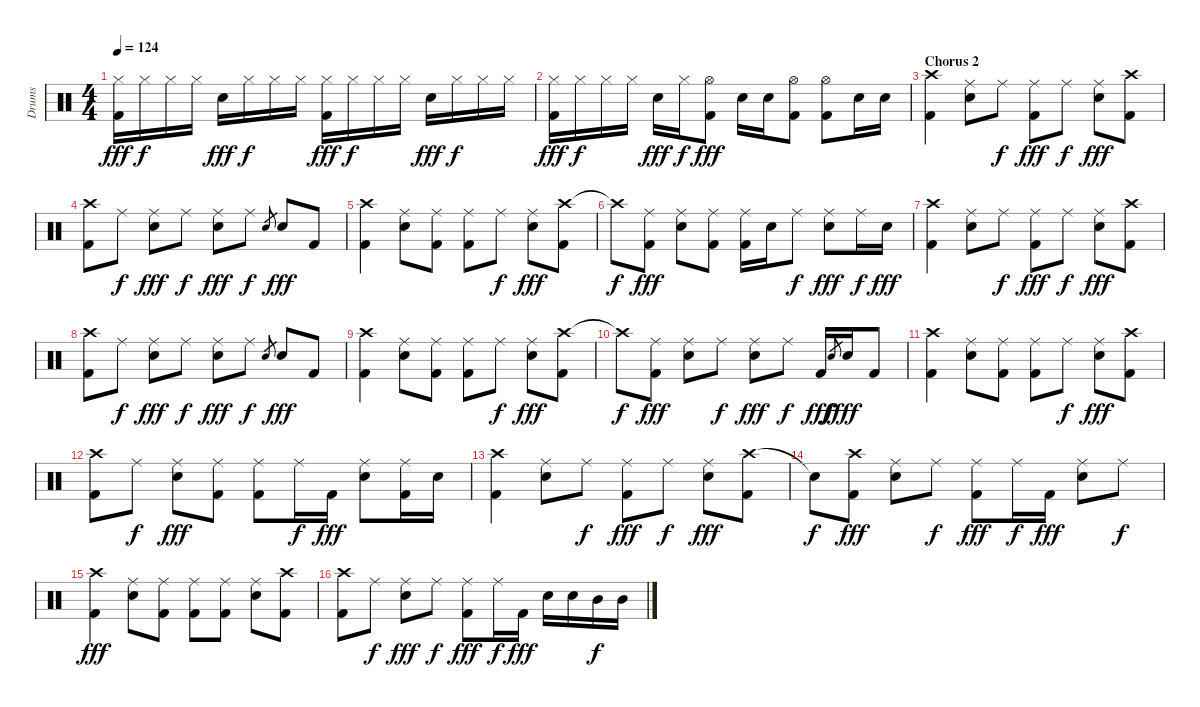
\track ("Drums" "Drums") {instrument percussion}
\staff {score}
\articulation defaults
\ts (4 4)
\tempo 124
\clef neutral
\ks c
("Hi-Hat (closed)" "Kick (hit) 2").16{dy fff} "Hi-Hat (closed)".16{dy f} "Hi-Hat (closed)".16 "Hi-Hat (closed)".16 "Electric Snare (hit)".16{dy fff} "Hi-Hat (closed)".16{dy f} "Hi-Hat (closed)".16 "Hi-Hat (closed)".16 ("Hi-Hat (closed)" "Kick (hit) 2").16{dy fff} "Hi-Hat (closed)".16{dy f} "Hi-Hat (closed)".16 "Hi-Hat (closed)".16 "Electric Snare (hit)".16{dy fff} "Hi-Hat (closed)".16{dy f} "Hi-Hat (closed)".16 "Hi-Hat (closed)".16 |
("Hi-Hat (closed)" "Kick (hit) 2").16{dy fff} "Hi-Hat (closed)".16{dy f} "Hi-Hat (closed)".16 "Hi-Hat (closed)".16 "Electric Snare (hit)".16{dy fff} "Hi-Hat (closed)".16{dy f} ("Hi-Hat (open)" "Kick (hit) 2").8{dy fff} "Electric Snare (hit)".16 "Electric Snare (hit)".16 ("Hi-Hat (open)" "Kick (hit) 2").8 ("Hi-Hat (open)" "Kick (hit) 2").8 "Electric Snare (hit)".16 "Electric Snare (hit)".16 |
\section ("" "Chorus 2")
("Crash high (hit)" "Kick (hit) 2").4 ("Ride (middle)" "Electric Snare (hit)").8 "Ride (middle)".8{dy f} ("Ride (middle)" "Kick (hit) 2").8{dy fff} "Ride (middle)".8{dy f} ("Ride (middle)" "Electric Snare (hit)").8{dy fff} ("Crash high (hit)" "Kick (hit) 2").8 |
("Crash high (hit)" "Kick (hit) 2").8 "Ride (middle)".8{dy f} ("Ride (middle)" "Electric Snare (hit)").8{dy fff} "Ride (middle)".8{dy f} ("Ride (middle)" "Electric Snare (hit)").8{dy fff} "Ride (middle)".8{dy f} "Electric Snare (hit)".8{gr} "Electric Snare (hit)".8{dy fff} "Kick (hit) 2".8 |
("Crash high (hit)" "Kick (hit) 2").4 ("Ride (middle)" "Electric Snare (hit)").8 ("Ride (middle)" "Kick (hit) 2").8 ("Ride (middle)" "Kick (hit) 2").8 "Ride (middle)".8{dy f} ("Ride (middle)" "Electric Snare (hit)").8{dy fff} ("Crash high (hit)" "Kick (hit) 2").8 |
"Crash high (hit)"{t}.8{dy f} ("Ride (middle)" "Kick (hit) 2").8{dy fff} ("Ride (middle)" "Electric Snare (hit)").8 ("Ride (middle)" "Kick (hit) 2").8 ("Ride (middle)" "Kick (hit) 2").16 "Electric Snare (hit)".16 "Ride (middle)".8{dy f} ("Ride (middle)" "Electric Snare (hit)").8{dy fff} "Ride (middle)".16{dy f} "Electric Snare (hit)".16{dy fff} |
("Crash high (hit)" "Kick (hit) 2").4 ("Ride (middle)" "Electric Snare (hit)").8 "Ride (middle)".8{dy f} ("Ride (middle)" "Kick (hit) 2").8{dy fff} "Ride (middle)".8{dy f} ("Ride (middle)" "Electric Snare (hit)").8{dy fff} ("Crash high (hit)" "Kick (hit) 2").8 |
("Crash high (hit)" "Kick (hit) 2").8 "Ride (middle)".8{dy f} ("Ride (middle)" "Electric Snare (hit)").8{dy fff} "Ride (middle)".8{dy f} ("Ride (middle)" "Electric Snare (hit)").8{dy fff} "Ride (middle)".8{dy f} "Electric Snare (hit)".8{gr} "Electric Snare (hit)".8{dy fff} "Kick (hit) 2".8 |
("Crash high (hit)" "Kick (hit) 2").4 ("Ride (middle)" "Electric Snare (hit)").8 ("Ride (middle)" "Kick (hit) 2").8 ("Ride (middle)" "Kick (hit) 2").8 "Ride (middle)".8{dy f} ("Ride (middle)" "Electric Snare (hit)").8{dy fff} ("Crash high (hit)" "Kick (hit) 2").8 |
"Crash high (hit)"{t}.8{dy f} ("Ride (middle)" "Kick (hit) 2").8{dy fff} ("Ride (middle)" "Electric Snare (hit)").8 "Ride (middle)".8{dy f} ("Ride (middle)" "Electric Snare (hit)").8{dy fff} "Ride (middle)".8{dy f} "Kick (hit) 2".16{dy fff} "Electric Snare (hit)".8{gr dy f} "Electric Snare (hit)".16{dy fff} "Kick (hit) 2".8 |
("Crash high (hit)" "Kick (hit) 2").4 ("Ride (middle)" "Electric Snare (hit)").8 ("Ride (middle)" "Kick (hit) 2").8 ("Ride (middle)" "Kick (hit) 2").8 "Ride (middle)".8{dy f} ("Ride (middle)" "Electric Snare (hit)").8{dy fff} ("Crash high (hit)" "Kick (hit) 2").8 |
("Crash high (hit)" "Kick (hit) 2").8 "Ride (middle)".8{dy f} ("Ride (middle)" "Electric Snare (hit)").8{dy fff} ("Ride (middle)" "Kick (hit) 2").8 ("Ride (middle)" "Kick (hit) 2").8 "Ride (middle)".16{dy f} "Kick (hit) 2".16{dy fff} ("Ride (middle)" "Electric Snare (hit)").8 ("Ride (middle)" "Kick (hit) 2").16 "Electric Snare (hit)".16 |
("Crash high (hit)" "Kick (hit) 2").4 ("Ride (middle)" "Electric Snare (hit)").8 "Ride (middle)".8{dy f} ("Ride (middle)" "Kick (hit) 2").8{dy fff} "Ride (middle)".8{dy f} ("Ride (middle)" "Electric Snare (hit)").8{dy fff} ("Crash high (hit)" "Kick (hit) 2").8 |
"Snare (hit)"{t}.8{dy f} ("Crash high (hit)" "Kick (hit) 2").8{dy fff} ("Ride (middle)" "Electric Snare (hit)").8 "Ride (middle)".8{dy f} ("Ride (middle)" "Kick (hit) 2").8{dy fff} "Ride (middle)".16{dy f} "Kick (hit) 2".16{dy fff} ("Ride (middle)" "Electric Snare (hit)").8 "Ride (middle)".8{dy f} |
("Crash high (hit)" "Kick (hit) 2").4{dy fff} ("Ride (middle)" "Electric Snare (hit)").8 ("Ride (middle)" "Kick (hit) 2").8 ("Ride (middle)" "Kick (hit) 2").8 ("Ride (middle)" "Kick (hit) 2").8 ("Ride (middle)" "Electric Snare (hit)").8 ("Crash high (hit)" "Kick (hit) 2").8 |
("Crash high (hit)" "Kick (hit) 2").8 "Ride (middle)".8{dy f} ("Ride (middle)" "Electric Snare (hit)").8{dy fff} "Ride (middle)".8{dy f} ("Ride (middle)" "Kick (hit) 2").8{dy fff} "Ride (middle)".16{dy f} "Kick (hit) 2".16{dy fff} "Electric Snare (hit)".16 "Electric Snare (hit)".16 "Mid Tom (hit)".16{dy f} "Mid Tom (hit)".16
